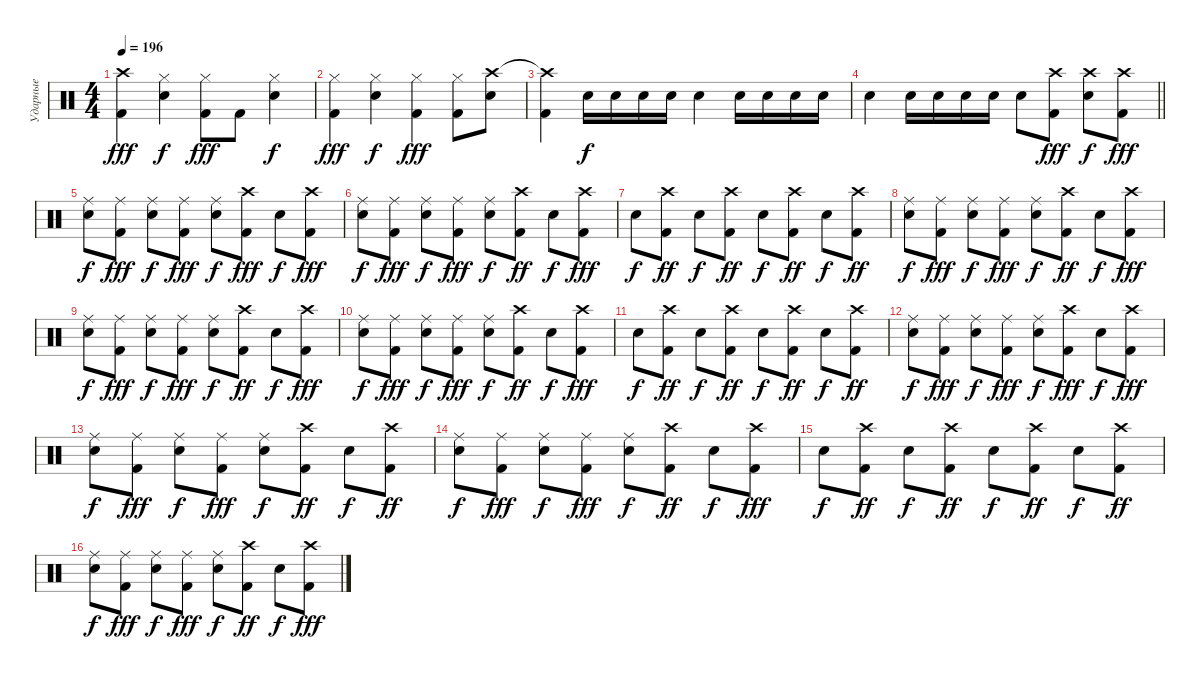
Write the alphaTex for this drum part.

\track ("Ударные" "Ударные") {instrument percussion}
\staff {score}
\articulation defaults
\ts (4 4)
\tempo 196
\clef neutral
\ks c
("Kick (hit) 2" "Crash high (hit)"{t}).4{dy fff} ("Snare (hit) 2" "Hi-Hat (closed)").4{dy f} ("Kick (hit) 2" "Hi-Hat (closed)").8{dy fff} "Kick (hit) 2".8 ("Snare (hit) 2" "Hi-Hat (closed)").4{dy f} |
("Kick (hit) 2" "Hi-Hat (closed)").4{dy fff} ("Snare (hit) 2" "Hi-Hat (closed)").4{dy f} ("Kick (hit) 2" "Hi-Hat (closed)").4{dy fff} ("Kick (hit) 2" "Hi-Hat (closed)").8 ("Snare (hit) 2" "Crash high (hit)").8 |
("Kick (hit) 2" "Crash high (hit)"{t}).4 "Snare (hit) 2".16{dy f} "Snare (hit) 2".16 "Snare (hit) 2".16 "Snare (hit) 2".16 "Snare (hit) 2".4 "Snare (hit) 2".16 "Snare (hit) 2".16 "Snare (hit) 2".16 "Snare (hit) 2".16 |
\barLineRight lightlight "Snare (hit) 2".4 "Snare (hit) 2".16 "Snare (hit) 2".16 "Snare (hit) 2".16 "Snare (hit) 2".16 "Snare (hit) 2".8
("Kick (hit) 2" "Crash high (hit)").8{dy fff} ("Snare (hit) 2" "Crash high (hit)").8{dy f} ("Kick (hit) 2" "Crash high (hit)").8{dy fff} |
("Snare (hit) 2" "Ride (middle)").8{dy f} ("Kick (hit) 2" "Ride (middle)").8{dy fff} ("Snare (hit) 2" "Ride (middle)").8{dy f} ("Kick (hit) 2" "Ride (middle)").8{dy fff} ("Snare (hit) 2" "Ride (middle)").8{dy f} ("Kick (hit) 2" "Crash high (hit)").8{dy fff} "Snare (hit) 2".8{dy f} ("Kick (hit) 2" "Crash high (hit)").8{dy fff} |
("Snare (hit) 2" "Ride (middle)").8{dy f} ("Kick (hit) 2" "Ride (middle)").8{dy fff} ("Snare (hit) 2" "Ride (middle)").8{dy f} ("Kick (hit) 2" "Ride (middle)").8{dy fff} ("Snare (hit) 2" "Ride (middle)").8{dy f} ("Kick (hit) 2" "Crash high (hit)").8{dy ff} "Snare (hit) 2".8{dy f} ("Kick (hit) 2" "Crash high (hit)").8{dy fff} |
"Snare (hit) 2".8{dy f} ("Kick (hit) 2" "Crash high (hit)").8{dy ff} "Snare (hit) 2".8{dy f} ("Kick (hit) 2" "Crash high (hit)").8{dy ff} "Snare (hit) 2".8{dy f} ("Kick (hit) 2" "Crash high (hit)").8{dy ff} "Snare (hit) 2".8{dy f} ("Kick (hit) 2" "Crash high (hit)").8{dy ff} |
("Snare (hit) 2" "Ride (middle)").8{dy f} ("Kick (hit) 2" "Ride (middle)").8{dy fff} ("Snare (hit) 2" "Ride (middle)").8{dy f} ("Kick (hit) 2" "Ride (middle)").8{dy fff} ("Snare (hit) 2" "Ride (middle)").8{dy f} ("Kick (hit) 2" "Crash high (hit)").8{dy ff} "Snare (hit) 2".8{dy f} ("Kick (hit) 2" "Crash high (hit)").8{dy fff} |
("Snare (hit) 2" "Ride (middle)").8{dy f} ("Kick (hit) 2" "Ride (middle)").8{dy fff} ("Snare (hit) 2" "Ride (middle)").8{dy f} ("Kick (hit) 2" "Ride (middle)").8{dy fff} ("Snare (hit) 2" "Ride (middle)").8{dy f} ("Kick (hit) 2" "Crash high (hit)").8{dy ff} "Snare (hit) 2".8{dy f} ("Kick (hit) 2" "Crash high (hit)").8{dy fff} |
("Snare (hit) 2" "Ride (middle)").8{dy f} ("Kick (hit) 2" "Ride (middle)").8{dy fff} ("Snare (hit) 2" "Ride (middle)").8{dy f} ("Kick (hit) 2" "Ride (middle)").8{dy fff} ("Snare (hit) 2" "Ride (middle)").8{dy f} ("Kick (hit) 2" "Crash high (hit)").8{dy ff} "Snare (hit) 2".8{dy f} ("Kick (hit) 2" "Crash high (hit)").8{dy fff} |
"Snare (hit) 2".8{dy f} ("Kick (hit) 2" "Crash high (hit)").8{dy ff} "Snare (hit) 2".8{dy f} ("Kick (hit) 2" "Crash high (hit)").8{dy ff} "Snare (hit) 2".8{dy f} ("Kick (hit) 2" "Crash high (hit)").8{dy ff} "Snare (hit) 2".8{dy f} ("Kick (hit) 2" "Crash high (hit)").8{dy ff} |
("Snare (hit) 2" "Ride (middle)").8{dy f} ("Kick (hit) 2" "Ride (middle)").8{dy fff} ("Snare (hit) 2" "Ride (middle)").8{dy f} ("Kick (hit) 2" "Ride (middle)").8{dy fff} ("Snare (hit) 2" "Ride (middle)").8{dy f} ("Kick (hit) 2" "Crash high (hit)").8{dy fff} "Snare (hit) 2".8{dy f} ("Kick (hit) 2" "Crash high (hit)").8{dy fff} |
("Snare (hit) 2" "Ride (middle)").8{dy f} ("Kick (hit) 2" "Ride (middle)").8{dy fff} ("Snare (hit) 2" "Ride (middle)").8{dy f} ("Kick (hit) 2" "Ride (middle)").8{dy fff} ("Snare (hit) 2" "Ride (middle)").8{dy f} ("Kick (hit) 2" "Crash high (hit)").8{dy ff} "Snare (hit) 2".8{dy f} ("Kick (hit) 2" "Crash high (hit)").8{dy ff} |
("Snare (hit) 2" "Ride (middle)").8{dy f} ("Kick (hit) 2" "Ride (middle)").8{dy fff} ("Snare (hit) 2" "Ride (middle)").8{dy f} ("Kick (hit) 2" "Ride (middle)").8{dy fff} ("Snare (hit) 2" "Ride (middle)").8{dy f} ("Kick (hit) 2" "Crash high (hit)").8{dy ff} "Snare (hit) 2".8{dy f} ("Kick (hit) 2" "Crash high (hit)").8{dy fff} |
"Snare (hit) 2".8{dy f} ("Kick (hit) 2" "Crash high (hit)").8{dy ff} "Snare (hit) 2".8{dy f} ("Kick (hit) 2" "Crash high (hit)").8{dy ff} "Snare (hit) 2".8{dy f} ("Kick (hit) 2" "Crash high (hit)").8{dy ff} "Snare (hit) 2".8{dy f} ("Kick (hit) 2" "Crash high (hit)").8{dy ff} |
("Snare (hit) 2" "Ride (middle)").8{dy f} ("Kick (hit) 2" "Ride (middle)").8{dy fff} ("Snare (hit) 2" "Ride (middle)").8{dy f} ("Kick (hit) 2" "Ride (middle)").8{dy fff} ("Snare (hit) 2" "Ride (middle)").8{dy f} ("Kick (hit) 2" "Crash high (hit)").8{dy ff} "Snare (hit) 2".8{dy f} ("Kick (hit) 2" "Crash high (hit)").8{dy fff}
